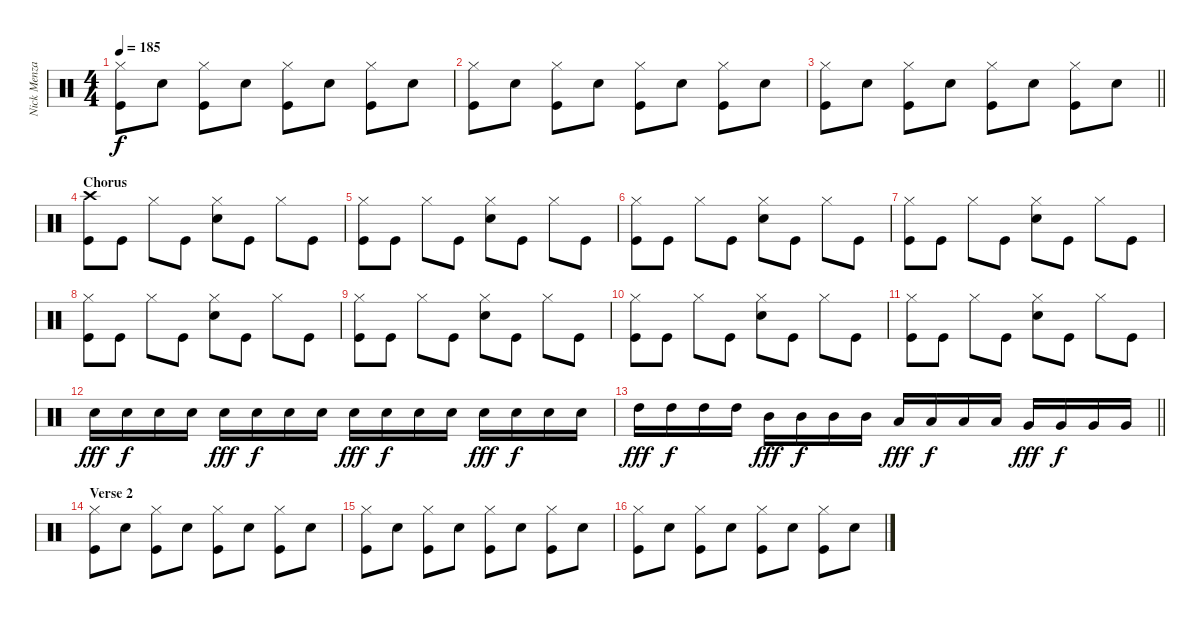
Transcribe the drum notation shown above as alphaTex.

\track ("Nick Menza" "Nick Menza") {instrument percussion}
\staff {score}
\articulation defaults
\ts (4 4)
\tempo 185
\clef neutral
\ks c
("Hi-Hat (closed)" "Kick (hit)").8{dy f} "Snare (hit) 2".8 ("Hi-Hat (closed)" "Kick (hit)").8 "Snare (hit) 2".8 ("Hi-Hat (closed)" "Kick (hit)").8 "Snare (hit) 2".8 ("Hi-Hat (closed)" "Kick (hit)").8 "Snare (hit) 2".8 |
("Hi-Hat (closed)" "Kick (hit)").8 "Snare (hit) 2".8 ("Hi-Hat (closed)" "Kick (hit)").8 "Snare (hit) 2".8 ("Hi-Hat (closed)" "Kick (hit)").8 "Snare (hit) 2".8 ("Hi-Hat (closed)" "Kick (hit)").8 "Snare (hit) 2".8 |
\barLineRight lightlight
("Hi-Hat (closed)" "Kick (hit)").8 "Snare (hit) 2".8 ("Hi-Hat (closed)" "Kick (hit)").8 "Snare (hit) 2".8 ("Hi-Hat (closed)" "Kick (hit)").8 "Snare (hit) 2".8 ("Hi-Hat (closed)" "Kick (hit)").8 "Snare (hit) 2".8 |
\section ("" "Chorus")
("Crash high (hit)" "Kick (hit)").8 "Kick (hit)".8 "Hi-Hat (closed)".8 "Kick (hit)".8 ("Hi-Hat (closed)" "Snare (hit) 2").8 "Kick (hit)".8 "Hi-Hat (closed)".8 "Kick (hit)".8 |
("Hi-Hat (closed)" "Kick (hit)").8 "Kick (hit)".8 "Hi-Hat (closed)".8 "Kick (hit)".8 ("Hi-Hat (closed)" "Snare (hit) 2").8 "Kick (hit)".8 "Hi-Hat (closed)".8 "Kick (hit)".8 |
("Hi-Hat (closed)" "Kick (hit)").8 "Kick (hit)".8 "Hi-Hat (closed)".8 "Kick (hit)".8 ("Hi-Hat (closed)" "Snare (hit) 2").8 "Kick (hit)".8 "Hi-Hat (closed)".8 "Kick (hit)".8 |
("Hi-Hat (closed)" "Kick (hit)").8 "Kick (hit)".8 "Hi-Hat (closed)".8 "Kick (hit)".8 ("Hi-Hat (closed)" "Snare (hit) 2").8 "Kick (hit)".8 "Hi-Hat (closed)".8 "Kick (hit)".8 |
("Hi-Hat (closed)" "Kick (hit)").8 "Kick (hit)".8 "Hi-Hat (closed)".8 "Kick (hit)".8 ("Hi-Hat (closed)" "Snare (hit) 2").8 "Kick (hit)".8 "Hi-Hat (closed)".8 "Kick (hit)".8 |
("Hi-Hat (closed)" "Kick (hit)").8 "Kick (hit)".8 "Hi-Hat (closed)".8 "Kick (hit)".8 ("Hi-Hat (closed)" "Snare (hit) 2").8 "Kick (hit)".8 "Hi-Hat (closed)".8 "Kick (hit)".8 |
("Hi-Hat (closed)" "Kick (hit)").8 "Kick (hit)".8 "Hi-Hat (closed)".8 "Kick (hit)".8 ("Hi-Hat (closed)" "Snare (hit) 2").8 "Kick (hit)".8 "Hi-Hat (closed)".8 "Kick (hit)".8 |
("Hi-Hat (closed)" "Kick (hit)").8 "Kick (hit)".8 "Hi-Hat (closed)".8 "Kick (hit)".8 ("Hi-Hat (closed)" "Snare (hit) 2").8 "Kick (hit)".8 "Hi-Hat (closed)".8 "Kick (hit)".8 |
"Snare (hit) 2".16{dy fff} "Snare (hit) 2".16{dy f} "Snare (hit) 2".16 "Snare (hit) 2".16 "Snare (hit) 2".16{dy fff} "Snare (hit) 2".16{dy f} "Snare (hit) 2".16 "Snare (hit) 2".16 "Snare (hit) 2".16{dy fff} "Snare (hit) 2".16{dy f} "Snare (hit) 2".16 "Snare (hit) 2".16 "Snare (hit) 2".16{dy fff} "Snare (hit) 2".16{dy f} "Snare (hit) 2".16 "Snare (hit) 2".16 |
\barLineRight lightlight "High Tom (hit)".16{dy fff} "High Tom (hit)".16{dy f} "High Tom (hit)".16 "High Tom (hit)".16 "Mid Tom (hit)".16{dy fff} "Mid Tom (hit)".16{dy f} "Mid Tom (hit)".16 "Mid Tom (hit)".16 "Low Tom (hit)".16{dy fff} "Low Tom (hit)".16{dy f} "Low Tom (hit)".16 "Low Tom (hit)".16 "Very Low Tom (hit)".16{dy fff} "Very Low Tom (hit)".16{dy f} "Very Low Tom (hit)".16 "Very Low Tom (hit)".16
|
\section ("" "Verse 2")
("Hi-Hat (closed)" "Kick (hit)").8 "Snare (hit) 2".8 ("Hi-Hat (closed)" "Kick (hit)").8 "Snare (hit) 2".8 ("Hi-Hat (closed)" "Kick (hit)").8 "Snare (hit) 2".8 ("Hi-Hat (closed)" "Kick (hit)").8 "Snare (hit) 2".8 |
("Hi-Hat (closed)" "Kick (hit)").8 "Snare (hit) 2".8 ("Hi-Hat (closed)" "Kick (hit)").8 "Snare (hit) 2".8 ("Hi-Hat (closed)" "Kick (hit)").8 "Snare (hit) 2".8 ("Hi-Hat (closed)" "Kick (hit)").8 "Snare (hit) 2".8 |
("Hi-Hat (closed)" "Kick (hit)").8 "Snare (hit) 2".8 ("Hi-Hat (closed)" "Kick (hit)").8 "Snare (hit) 2".8 ("Hi-Hat (closed)" "Kick (hit)").8 "Snare (hit) 2".8 ("Hi-Hat (closed)" "Kick (hit)").8 "Snare (hit) 2".8
